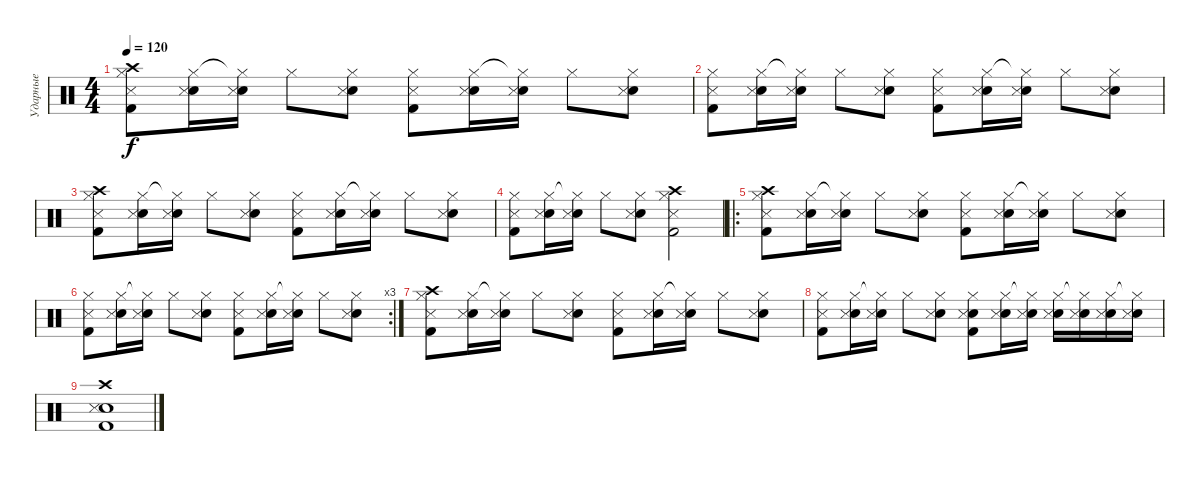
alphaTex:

\track ("Ударные" "Ударные") {instrument percussion}
\staff {score}
\articulation defaults
\ts (4 4)
\tempo 120
\clef neutral
\ks c
("Crash high (hit)" "Hi-Hat (closed)" "Kick (hit) 2" "Snare (side stick) 3").8{dy f} ("Hi-Hat (closed)" "Snare (hit) 2" "Snare (side stick) 3").16 ("Hi-Hat (closed)"{t} "Snare (hit) 2" "Snare (side stick) 3").16 "Hi-Hat (closed)".8 ("Hi-Hat (closed)" "Snare (hit) 2" "Snare (side stick) 3").8 ("Hi-Hat (closed)" "Kick (hit) 2" "Snare (side stick) 3").8 ("Hi-Hat (closed)" "Snare (hit) 2" "Snare (side stick) 3").16 ("Hi-Hat (closed)"{t} "Snare (hit) 2" "Snare (side stick) 3").16 "Hi-Hat (closed)".8 ("Hi-Hat (closed)" "Snare (hit) 2" "Snare (side stick) 3").8 |
("Hi-Hat (closed)" "Kick (hit) 2" "Snare (side stick) 3").8 ("Hi-Hat (closed)" "Snare (hit) 2" "Snare (side stick) 3").16 ("Hi-Hat (closed)"{t} "Snare (hit) 2" "Snare (side stick) 3").16 "Hi-Hat (closed)".8 ("Hi-Hat (closed)" "Snare (hit) 2" "Snare (side stick) 3").8 ("Hi-Hat (closed)" "Kick (hit) 2" "Snare (side stick) 3").8 ("Hi-Hat (closed)" "Snare (hit) 2" "Snare (side stick) 3").16 ("Hi-Hat (closed)"{t} "Snare (hit) 2" "Snare (side stick) 3").16 "Hi-Hat (closed)".8 ("Hi-Hat (closed)" "Snare (hit) 2" "Snare (side stick) 3").8 |
("Crash high (hit)" "Hi-Hat (closed)" "Kick (hit) 2" "Snare (side stick) 3").8 ("Hi-Hat (closed)" "Snare (hit) 2" "Snare (side stick) 3").16 ("Hi-Hat (closed)"{t} "Snare (hit) 2" "Snare (side stick) 3").16 "Hi-Hat (closed)".8 ("Hi-Hat (closed)" "Snare (hit) 2" "Snare (side stick) 3").8 ("Hi-Hat (closed)" "Kick (hit) 2" "Snare (side stick) 3").8 ("Hi-Hat (closed)" "Snare (hit) 2" "Snare (side stick) 3").16 ("Hi-Hat (closed)"{t} "Snare (hit) 2" "Snare (side stick) 3").16 "Hi-Hat (closed)".8 ("Hi-Hat (closed)" "Snare (hit) 2" "Snare (side stick) 3").8 |
("Hi-Hat (closed)" "Kick (hit) 2" "Snare (side stick) 3").8 ("Hi-Hat (closed)" "Snare (hit) 2" "Snare (side stick) 3").16 ("Hi-Hat (closed)"{t} "Snare (hit) 2" "Snare (side stick) 3").16 "Hi-Hat (closed)".8 ("Hi-Hat (closed)" "Snare (hit) 2" "Snare (side stick) 3").8 ("Crash high (hit)" "Hi-Hat (closed)" "Kick (hit) 2" "Snare (side stick) 3").2 |
\ro
("Crash high (hit)" "Hi-Hat (closed)" "Kick (hit) 2" "Snare (side stick) 3").8 ("Hi-Hat (closed)" "Snare (hit) 2" "Snare (side stick) 3").16 ("Hi-Hat (closed)"{t} "Snare (hit) 2" "Snare (side stick) 3").16 "Hi-Hat (closed)".8 ("Hi-Hat (closed)" "Snare (hit) 2" "Snare (side stick) 3").8 ("Hi-Hat (closed)" "Kick (hit) 2" "Snare (side stick) 3").8 ("Hi-Hat (closed)" "Snare (hit) 2" "Snare (side stick) 3").16 ("Hi-Hat (closed)"{t} "Snare (hit) 2" "Snare (side stick) 3").16 "Hi-Hat (closed)".8 ("Hi-Hat (closed)" "Snare (hit) 2" "Snare (side stick) 3").8 |
\rc 3
("Hi-Hat (closed)" "Kick (hit) 2" "Snare (side stick) 3").8 ("Hi-Hat (closed)" "Snare (hit) 2" "Snare (side stick) 3").16 ("Hi-Hat (closed)"{t} "Snare (hit) 2" "Snare (side stick) 3").16 "Hi-Hat (closed)".8 ("Hi-Hat (closed)" "Snare (hit) 2" "Snare (side stick) 3").8 ("Hi-Hat (closed)" "Kick (hit) 2" "Snare (side stick) 3").8 ("Hi-Hat (closed)" "Snare (hit) 2" "Snare (side stick) 3").16 ("Hi-Hat (closed)"{t} "Snare (hit) 2" "Snare (side stick) 3").16 "Hi-Hat (closed)".8 ("Hi-Hat (closed)" "Snare (hit) 2" "Snare (side stick) 3").8 |
("Crash high (hit)" "Hi-Hat (closed)" "Kick (hit) 2" "Snare (side stick) 3").8 ("Hi-Hat (closed)" "Snare (hit) 2" "Snare (side stick) 3").16 ("Hi-Hat (closed)"{t} "Snare (hit) 2" "Snare (side stick) 3").16 "Hi-Hat (closed)".8 ("Hi-Hat (closed)" "Snare (hit) 2" "Snare (side stick) 3").8 ("Hi-Hat (closed)" "Kick (hit) 2" "Snare (side stick) 3").8 ("Hi-Hat (closed)" "Snare (hit) 2" "Snare (side stick) 3").16 ("Hi-Hat (closed)"{t} "Snare (hit) 2" "Snare (side stick) 3").16 "Hi-Hat (closed)".8 ("Hi-Hat (closed)" "Snare (hit) 2" "Snare (side stick) 3").8 |
("Hi-Hat (closed)" "Kick (hit) 2" "Snare (side stick) 3").8 ("Hi-Hat (closed)" "Snare (hit) 2" "Snare (side stick) 3").16 ("Hi-Hat (closed)"{t} "Snare (hit) 2" "Snare (side stick) 3").16 "Hi-Hat (closed)".8 ("Hi-Hat (closed)" "Snare (hit) 2" "Snare (side stick) 3").8 ("Hi-Hat (closed)" "Kick (hit) 2" "Snare (hit) 2" "Snare (side stick) 3").8 ("Hi-Hat (closed)" "Snare (hit) 2" "Snare (side stick) 3").16 ("Hi-Hat (closed)"{t} "Snare (hit) 2" "Snare (side stick) 3").16 ("Hi-Hat (closed)" "Snare (hit) 2" "Snare (side stick) 3").16 ("Hi-Hat (closed)"{t} "Snare (hit) 2" "Snare (side stick) 3").16 ("Hi-Hat (closed)" "Snare (hit) 2" "Snare (side stick) 3").16 ("Hi-Hat (closed)"{t} "Snare (hit) 2" "Snare (side stick) 3").16 |
("Crash high (hit)" "Kick (hit) 2" "Snare (hit) 2" "Snare (side stick) 3").1
